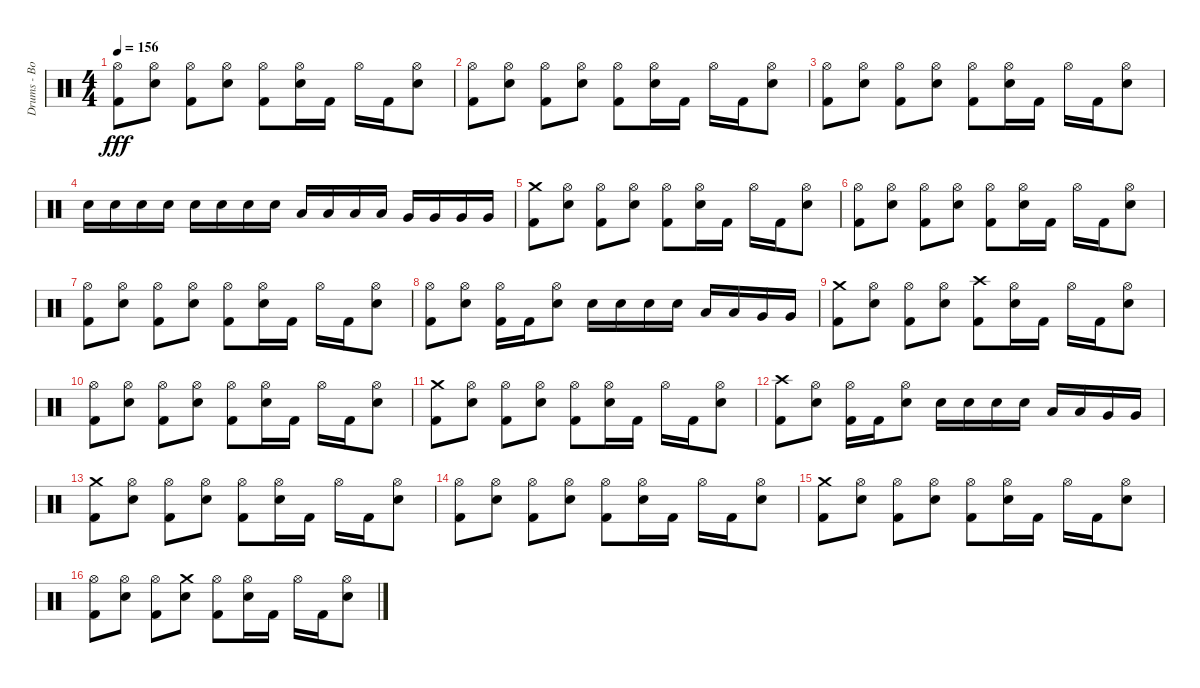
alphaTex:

\track ("Drums - Bobby Schayer" "Drums - Bo") {instrument percussion}
\staff {score}
\articulation defaults
\ts (4 4)
\tempo 156
\clef neutral
\ks c
("Kick (hit) 2" "Hi-Hat (open)").8{dy fff} ("Electric Snare (hit)" "Hi-Hat (open)").8 ("Kick (hit) 2" "Hi-Hat (open)").8 ("Electric Snare (hit)" "Hi-Hat (open)").8 ("Kick (hit) 2" "Hi-Hat (open)").8 ("Electric Snare (hit)" "Hi-Hat (open)").16 "Kick (hit) 2".16 "Hi-Hat (open)".16 "Kick (hit) 2".16 ("Electric Snare (hit)" "Hi-Hat (open)").8 |
("Kick (hit) 2" "Hi-Hat (open)").8 ("Electric Snare (hit)" "Hi-Hat (open)").8 ("Kick (hit) 2" "Hi-Hat (open)").8 ("Electric Snare (hit)" "Hi-Hat (open)").8 ("Kick (hit) 2" "Hi-Hat (open)").8 ("Electric Snare (hit)" "Hi-Hat (open)").16 "Kick (hit) 2".16 "Hi-Hat (open)".16 "Kick (hit) 2".16 ("Electric Snare (hit)" "Hi-Hat (open)").8 |
("Kick (hit) 2" "Hi-Hat (open)").8 ("Electric Snare (hit)" "Hi-Hat (open)").8 ("Kick (hit) 2" "Hi-Hat (open)").8 ("Electric Snare (hit)" "Hi-Hat (open)").8 ("Kick (hit) 2" "Hi-Hat (open)").8 ("Electric Snare (hit)" "Hi-Hat (open)").16 "Kick (hit) 2".16 "Hi-Hat (open)".16 "Kick (hit) 2".16 ("Electric Snare (hit)" "Hi-Hat (open)").8 |
"Electric Snare (hit)".16 "Electric Snare (hit)".16 "Electric Snare (hit)".16 "Electric Snare (hit)".16 "Electric Snare (hit)".16 "Electric Snare (hit)".16 "Electric Snare (hit)".16 "Electric Snare (hit)".16 "Low Tom (hit)".16 "Low Tom (hit)".16 "Low Tom (hit)".16 "Low Tom (hit)".16 "Very Low Tom (hit)".16 "Very Low Tom (hit)".16 "Very Low Tom (hit)".16 "Very Low Tom (hit)".16 |
("Kick (hit) 2" "Crash medium (hit)").8 ("Electric Snare (hit)" "Hi-Hat (open)").8 ("Kick (hit) 2" "Hi-Hat (open)").8 ("Electric Snare (hit)" "Hi-Hat (open)").8 ("Kick (hit) 2" "Hi-Hat (open)").8 ("Electric Snare (hit)" "Hi-Hat (open)").16 "Kick (hit) 2".16 "Hi-Hat (open)".16 "Kick (hit) 2".16 ("Electric Snare (hit)" "Hi-Hat (open)").8 |
("Kick (hit) 2" "Hi-Hat (open)").8 ("Electric Snare (hit)" "Hi-Hat (open)").8 ("Kick (hit) 2" "Hi-Hat (open)").8 ("Electric Snare (hit)" "Hi-Hat (open)").8 ("Kick (hit) 2" "Hi-Hat (open)").8 ("Electric Snare (hit)" "Hi-Hat (open)").16 "Kick (hit) 2".16 "Hi-Hat (open)".16 "Kick (hit) 2".16 ("Electric Snare (hit)" "Hi-Hat (open)").8 |
("Kick (hit) 2" "Hi-Hat (open)").8 ("Electric Snare (hit)" "Hi-Hat (open)").8 ("Kick (hit) 2" "Hi-Hat (open)").8 ("Electric Snare (hit)" "Hi-Hat (open)").8 ("Kick (hit) 2" "Hi-Hat (open)").8 ("Electric Snare (hit)" "Hi-Hat (open)").16 "Kick (hit) 2".16 "Hi-Hat (open)".16 "Kick (hit) 2".16 ("Electric Snare (hit)" "Hi-Hat (open)").8 |
("Kick (hit) 2" "Hi-Hat (open)").8 ("Electric Snare (hit)" "Hi-Hat (open)").8 ("Kick (hit) 2" "Hi-Hat (open)").16 "Kick (hit) 2".16 ("Electric Snare (hit)" "Hi-Hat (open)").8 "Electric Snare (hit)".16 "Electric Snare (hit)".16 "Electric Snare (hit)".16 "Electric Snare (hit)".16 "Low Tom (hit)".16 "Low Tom (hit)".16 "Very Low Tom (hit)".16 "Very Low Tom (hit)".16 |
("Crash medium (hit)" "Kick (hit) 2").8 ("Electric Snare (hit)" "Hi-Hat (open)").8 ("Kick (hit) 2" "Hi-Hat (open)").8 ("Electric Snare (hit)" "Hi-Hat (open)").8 ("Crash high (hit)" "Kick (hit) 2").8 ("Electric Snare (hit)" "Hi-Hat (open)").16 "Kick (hit) 2".16 "Hi-Hat (open)".16 "Kick (hit) 2".16 ("Electric Snare (hit)" "Hi-Hat (open)").8 |
("Kick (hit) 2" "Hi-Hat (open)").8 ("Electric Snare (hit)" "Hi-Hat (open)").8 ("Kick (hit) 2" "Hi-Hat (open)").8 ("Electric Snare (hit)" "Hi-Hat (open)").8 ("Kick (hit) 2" "Hi-Hat (open)").8 ("Electric Snare (hit)" "Hi-Hat (open)").16 "Kick (hit) 2".16 "Hi-Hat (open)".16 "Kick (hit) 2".16 ("Electric Snare (hit)" "Hi-Hat (open)").8 |
("Crash medium (hit)" "Kick (hit) 2").8 ("Hi-Hat (open)" "Electric Snare (hit)").8 ("Hi-Hat (open)" "Kick (hit) 2").8 ("Hi-Hat (open)" "Electric Snare (hit)").8 ("Hi-Hat (open)" "Kick (hit) 2").8 ("Hi-Hat (open)" "Electric Snare (hit)").16 "Kick (hit) 2".16 "Hi-Hat (open)".16 "Kick (hit) 2".16 ("Hi-Hat (open)" "Electric Snare (hit)").8 |
("Crash high (hit)" "Kick (hit) 2").8 ("Electric Snare (hit)" "Hi-Hat (open)").8 ("Kick (hit) 2" "Hi-Hat (open)").16 "Kick (hit) 2".16 ("Electric Snare (hit)" "Hi-Hat (open)").8 "Electric Snare (hit)".16 "Electric Snare (hit)".16 "Electric Snare (hit)".16 "Electric Snare (hit)".16 "Low Tom (hit)".16 "Low Tom (hit)".16 "Very Low Tom (hit)".16 "Very Low Tom (hit)".16 |
("Kick (hit) 2" "Crash medium (hit)").8 ("Electric Snare (hit)" "Hi-Hat (open)").8 ("Kick (hit) 2" "Hi-Hat (open)").8 ("Electric Snare (hit)" "Hi-Hat (open)").8 ("Kick (hit) 2" "Hi-Hat (open)").8 ("Electric Snare (hit)" "Hi-Hat (open)").16 "Kick (hit) 2".16 "Hi-Hat (open)".16 "Kick (hit) 2".16 ("Electric Snare (hit)" "Hi-Hat (open)").8 |
("Kick (hit) 2" "Hi-Hat (open)").8 ("Electric Snare (hit)" "Hi-Hat (open)").8 ("Kick (hit) 2" "Hi-Hat (open)").8 ("Electric Snare (hit)" "Hi-Hat (open)").8 ("Kick (hit) 2" "Hi-Hat (open)").8 ("Electric Snare (hit)" "Hi-Hat (open)").16 "Kick (hit) 2".16 "Hi-Hat (open)".16 "Kick (hit) 2".16 ("Electric Snare (hit)" "Hi-Hat (open)").8 |
("Kick (hit) 2" "Crash medium (hit)").8 ("Electric Snare (hit)" "Hi-Hat (open)").8 ("Kick (hit) 2" "Hi-Hat (open)").8 ("Electric Snare (hit)" "Hi-Hat (open)").8 ("Kick (hit) 2" "Hi-Hat (open)").8 ("Electric Snare (hit)" "Hi-Hat (open)").16 "Kick (hit) 2".16 "Hi-Hat (open)".16 "Kick (hit) 2".16 ("Electric Snare (hit)" "Hi-Hat (open)").8 |
("Kick (hit) 2" "Hi-Hat (open)").8 ("Electric Snare (hit)" "Hi-Hat (open)").8 ("Kick (hit) 2" "Hi-Hat (open)").8 ("Electric Snare (hit)" "Crash medium (hit)").8 ("Kick (hit) 2" "Hi-Hat (open)").8 ("Electric Snare (hit)" "Hi-Hat (open)").16 "Kick (hit) 2".16 "Hi-Hat (open)".16 "Kick (hit) 2".16 ("Electric Snare (hit)" "Hi-Hat (open)").8
